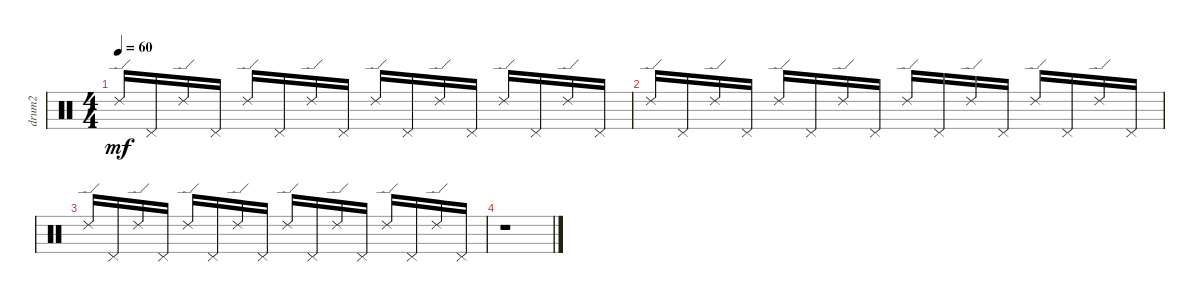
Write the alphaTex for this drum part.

\track ("drum2" "drum2") {instrument percussion}
\staff {score}
\articulation defaults
\ts (4 4)
\tempo 60
\clef neutral
\ks c "Ride (edge) 2".16{dy mf} "Pedal Hi-Hat (hit)".16 "Ride (edge) 2".16 "Pedal Hi-Hat (hit)".16 "Ride (edge) 2".16 "Pedal Hi-Hat (hit)".16 "Ride (edge) 2".16 "Pedal Hi-Hat (hit)".16 "Ride (edge) 2".16 "Pedal Hi-Hat (hit)".16 "Ride (edge) 2".16 "Pedal Hi-Hat (hit)".16 "Ride (edge) 2".16 "Pedal Hi-Hat (hit)".16 "Ride (edge) 2".16 "Pedal Hi-Hat (hit)".16
|
"Ride (edge) 2".16 "Pedal Hi-Hat (hit)".16 "Ride (edge) 2".16 "Pedal Hi-Hat (hit)".16 "Ride (edge) 2".16 "Pedal Hi-Hat (hit)".16 "Ride (edge) 2".16 "Pedal Hi-Hat (hit)".16 "Ride (edge) 2".16 "Pedal Hi-Hat (hit)".16 "Ride (edge) 2".16 "Pedal Hi-Hat (hit)".16 "Ride (edge) 2".16 "Pedal Hi-Hat (hit)".16 "Ride (edge) 2".16 "Pedal Hi-Hat (hit)".16 |
"Ride (edge) 2".16 "Pedal Hi-Hat (hit)".16 "Ride (edge) 2".16 "Pedal Hi-Hat (hit)".16 "Ride (edge) 2".16 "Pedal Hi-Hat (hit)".16 "Ride (edge) 2".16 "Pedal Hi-Hat (hit)".16 "Ride (edge) 2".16 "Pedal Hi-Hat (hit)".16 "Ride (edge) 2".16 "Pedal Hi-Hat (hit)".16 "Ride (edge) 2".16 "Pedal Hi-Hat (hit)".16 "Ride (edge) 2".16 "Pedal Hi-Hat (hit)".16 |
r.1
